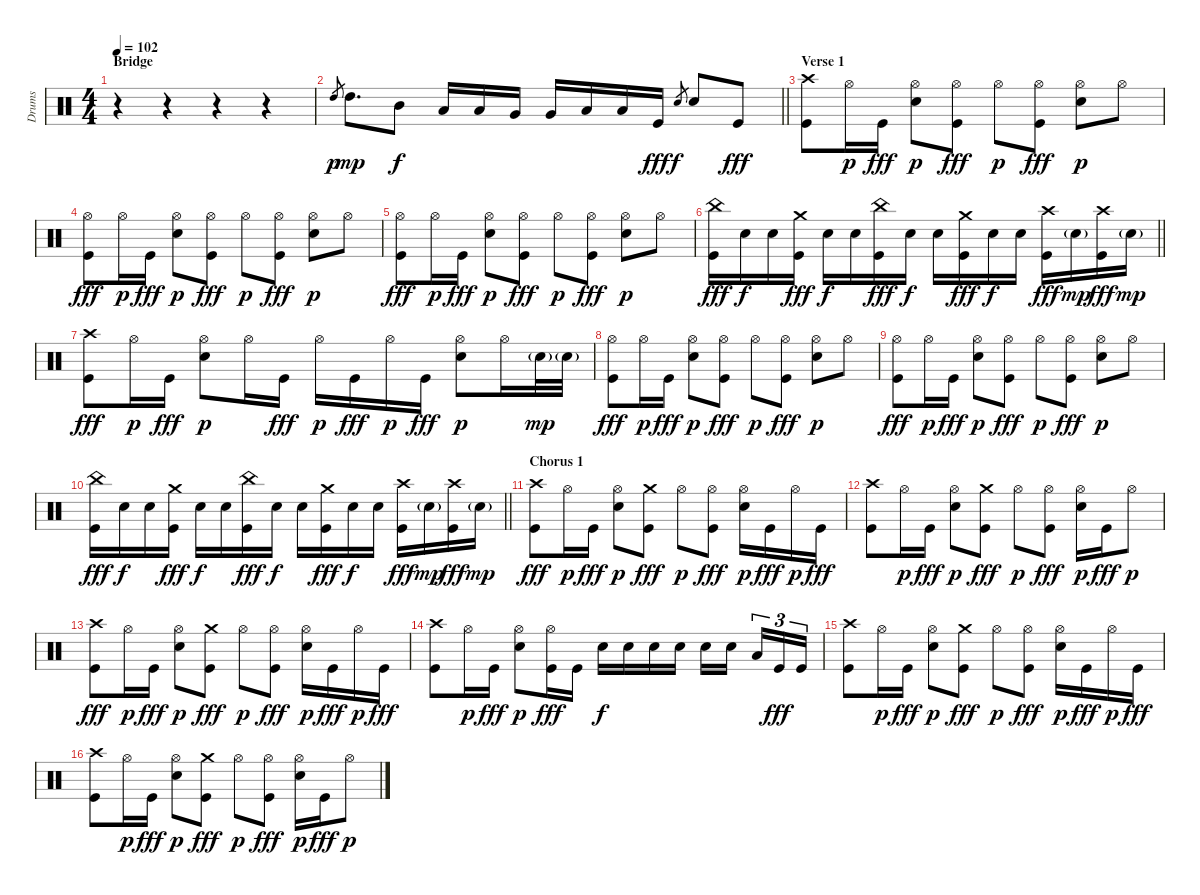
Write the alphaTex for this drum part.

\track ("Drums" "Drums") {instrument percussion}
\staff
\articulation defaults
\ts (4 4)
\section ("" "Bridge")
\tempo 102
\clef neutral
\ks c
r.4{dy ff} r.4 r.4 r.4 |
\barLineRight lightlight "High Tom (hit)".8{gr dy p} "High Tom (hit)".8{d dy mp} "Mid Tom (hit)".8{dy f} "Low Tom (hit)".16 "Low Tom (hit)".16 "Very Low Tom (hit)".16 "Very Low Tom (hit)".16 "Low Floor Tom (hit)".16 "Low Floor Tom (hit)".16 "Kick (hit)".16{dy fff} "Electric Snare (hit)".8{gr dy f} "Electric Snare (hit)".8 "Kick (hit)".8{dy fff}
|
\section ("" "Verse 1")
("Crash high (hit)" "Kick (hit)").8 "Hi-Hat (open)".16{dy p} "Kick (hit)".16{dy fff} ("Hi-Hat (open)" "Electric Snare (hit)").8{dy p} ("Hi-Hat (open)" "Kick (hit)").8{dy fff} "Hi-Hat (open)".8{dy p} ("Hi-Hat (open)" "Kick (hit)").8{dy fff} ("Hi-Hat (open)" "Electric Snare (hit)").8{dy p} "Hi-Hat (open)".8 |
("Hi-Hat (open)" "Kick (hit)").8{dy fff} "Hi-Hat (open)".16{dy p} "Kick (hit)".16{dy fff} ("Hi-Hat (open)" "Electric Snare (hit)").8{dy p} ("Hi-Hat (open)" "Kick (hit)").8{dy fff} "Hi-Hat (open)".8{dy p} ("Hi-Hat (open)" "Kick (hit)").8{dy fff} ("Hi-Hat (open)" "Electric Snare (hit)").8{dy p} "Hi-Hat (open)".8 |
("Hi-Hat (open)" "Kick (hit)").8{dy fff} "Hi-Hat (open)".16{dy p} "Kick (hit)".16{dy fff} ("Hi-Hat (open)" "Electric Snare (hit)").8{dy p} ("Hi-Hat (open)" "Kick (hit)").8{dy fff} "Hi-Hat (open)".8{dy p} ("Hi-Hat (open)" "Kick (hit)").8{dy fff} ("Hi-Hat (open)" "Electric Snare (hit)").8{dy p} "Hi-Hat (open)".8 |
\barLineRight lightlight
("China (hit)" "Kick (hit)").16{dy fff} "Electric Snare (hit)".16{dy f} "Electric Snare (hit)".16 ("Crash medium (hit)" "Kick (hit)").16{dy fff} "Electric Snare (hit)".16{dy f} "Electric Snare (hit)".16 ("China (hit)" "Kick (hit)").16{dy fff} "Electric Snare (hit)".16{dy f} "Electric Snare (hit)".16 ("Crash medium (hit)" "Kick (hit)").16{dy fff} "Electric Snare (hit)".16{dy f} "Electric Snare (hit)".16 ("Crash high (hit)" "Kick (hit)").16{dy fff} "Electric Snare (hit)"{g}.16{dy mp} ("Crash high (hit)" "Kick (hit)").16{dy fff} "Electric Snare (hit)"{g}.16{dy mp} |
("Crash high (hit)" "Kick (hit)").8{dy fff} "Hi-Hat (open)".16{dy p} "Kick (hit)".16{dy fff} ("Hi-Hat (open)" "Electric Snare (hit)").8{dy p} "Hi-Hat (open)".16 "Kick (hit)".16{dy fff} "Hi-Hat (open)".16{dy p} "Kick (hit)".16{dy fff} "Hi-Hat (open)".16{dy p} "Kick (hit)".16{dy fff} ("Hi-Hat (open)" "Electric Snare (hit)").8{dy p} "Hi-Hat (open)".16 "Electric Snare (hit)"{g}.32{dy mp} "Electric Snare (hit)"{g}.32 |
("Hi-Hat (open)" "Kick (hit)").8{dy fff} "Hi-Hat (open)".16{dy p} "Kick (hit)".16{dy fff} ("Hi-Hat (open)" "Electric Snare (hit)").8{dy p} ("Hi-Hat (open)" "Kick (hit)").8{dy fff} "Hi-Hat (open)".8{dy p} ("Hi-Hat (open)" "Kick (hit)").8{dy fff} ("Hi-Hat (open)" "Electric Snare (hit)").8{dy p} "Hi-Hat (open)".8 |
("Hi-Hat (open)" "Kick (hit)").8{dy fff} "Hi-Hat (open)".16{dy p} "Kick (hit)".16{dy fff} ("Hi-Hat (open)" "Electric Snare (hit)").8{dy p} ("Hi-Hat (open)" "Kick (hit)").8{dy fff} "Hi-Hat (open)".8{dy p} ("Hi-Hat (open)" "Kick (hit)").8{dy fff} ("Hi-Hat (open)" "Electric Snare (hit)").8{dy p} "Hi-Hat (open)".8 |
\barLineRight lightlight
("China (hit)" "Kick (hit)").16{dy fff} "Electric Snare (hit)".16{dy f} "Electric Snare (hit)".16 ("Crash medium (hit)" "Kick (hit)").16{dy fff} "Electric Snare (hit)".16{dy f} "Electric Snare (hit)".16 ("China (hit)" "Kick (hit)").16{dy fff} "Electric Snare (hit)".16{dy f} "Electric Snare (hit)".16 ("Crash medium (hit)" "Kick (hit)").16{dy fff} "Electric Snare (hit)".16{dy f} "Electric Snare (hit)".16 ("Crash high (hit)" "Kick (hit)").16{dy fff} "Electric Snare (hit)"{g}.16{dy mp} ("Crash high (hit)" "Kick (hit)").16{dy fff} "Electric Snare (hit)"{g}.16{dy mp} |
\section ("" "Chorus 1")
("Crash high (hit)" "Kick (hit)").8{dy fff} "Hi-Hat (open)".16{dy p} "Kick (hit)".16{dy fff} ("Hi-Hat (open)" "Electric Snare (hit)").8{dy p} ("Crash medium (hit)" "Kick (hit)").8{dy fff} "Hi-Hat (open)".8{dy p} ("Hi-Hat (open)" "Kick (hit)").8{dy fff} ("Hi-Hat (open)" "Electric Snare (hit)").16{dy p} "Kick (hit)".16{dy fff} "Hi-Hat (open)".16{dy p} "Kick (hit)".16{dy fff} |
("Crash high (hit)" "Kick (hit)").8 "Hi-Hat (open)".16{dy p} "Kick (hit)".16{dy fff} ("Hi-Hat (open)" "Electric Snare (hit)").8{dy p} ("Crash medium (hit)" "Kick (hit)").8{dy fff} "Hi-Hat (open)".8{dy p} ("Hi-Hat (open)" "Kick (hit)").8{dy fff} ("Hi-Hat (open)" "Electric Snare (hit)").16{dy p} "Kick (hit)".16{dy fff} "Hi-Hat (open)".8{dy p} |
("Crash high (hit)" "Kick (hit)").8{dy fff} "Hi-Hat (open)".16{dy p} "Kick (hit)".16{dy fff} ("Hi-Hat (open)" "Electric Snare (hit)").8{dy p} ("Crash medium (hit)" "Kick (hit)").8{dy fff} "Hi-Hat (open)".8{dy p} ("Hi-Hat (open)" "Kick (hit)").8{dy fff} ("Hi-Hat (open)" "Electric Snare (hit)").16{dy p} "Kick (hit)".16{dy fff} "Hi-Hat (open)".16{dy p} "Kick (hit)".16{dy fff} |
("Crash high (hit)" "Kick (hit)").8 "Hi-Hat (open)".16{dy p} "Kick (hit)".16{dy fff} ("Hi-Hat (open)" "Electric Snare (hit)").8{dy p} ("Hi-Hat (open)" "Kick (hit)").16{dy fff} "Kick (hit)".16 "Electric Snare (hit)".16{dy f} "Electric Snare (hit)".16 "Electric Snare (hit)".16 "Electric Snare (hit)".16 "Electric Snare (hit)".16 "Electric Snare (hit)".16{beam splitsecondary} "Low Floor Tom (hit)".16{tu (3 2)} "Kick (hit)".16{tu (3 2) dy fff} "Kick (hit)".16{tu (3 2)} |
("Crash high (hit)" "Kick (hit)").8 "Hi-Hat (open)".16{dy p} "Kick (hit)".16{dy fff} ("Hi-Hat (open)" "Electric Snare (hit)").8{dy p} ("Crash medium (hit)" "Kick (hit)").8{dy fff} "Hi-Hat (open)".8{dy p} ("Hi-Hat (open)" "Kick (hit)").8{dy fff} ("Hi-Hat (open)" "Electric Snare (hit)").16{dy p} "Kick (hit)".16{dy fff} "Hi-Hat (open)".16{dy p} "Kick (hit)".16{dy fff} |
("Crash high (hit)" "Kick (hit)").8 "Hi-Hat (open)".16{dy p} "Kick (hit)".16{dy fff} ("Hi-Hat (open)" "Electric Snare (hit)").8{dy p} ("Crash medium (hit)" "Kick (hit)").8{dy fff} "Hi-Hat (open)".8{dy p} ("Hi-Hat (open)" "Kick (hit)").8{dy fff} ("Hi-Hat (open)" "Electric Snare (hit)").16{dy p} "Kick (hit)".16{dy fff} "Hi-Hat (open)".8{dy p}
